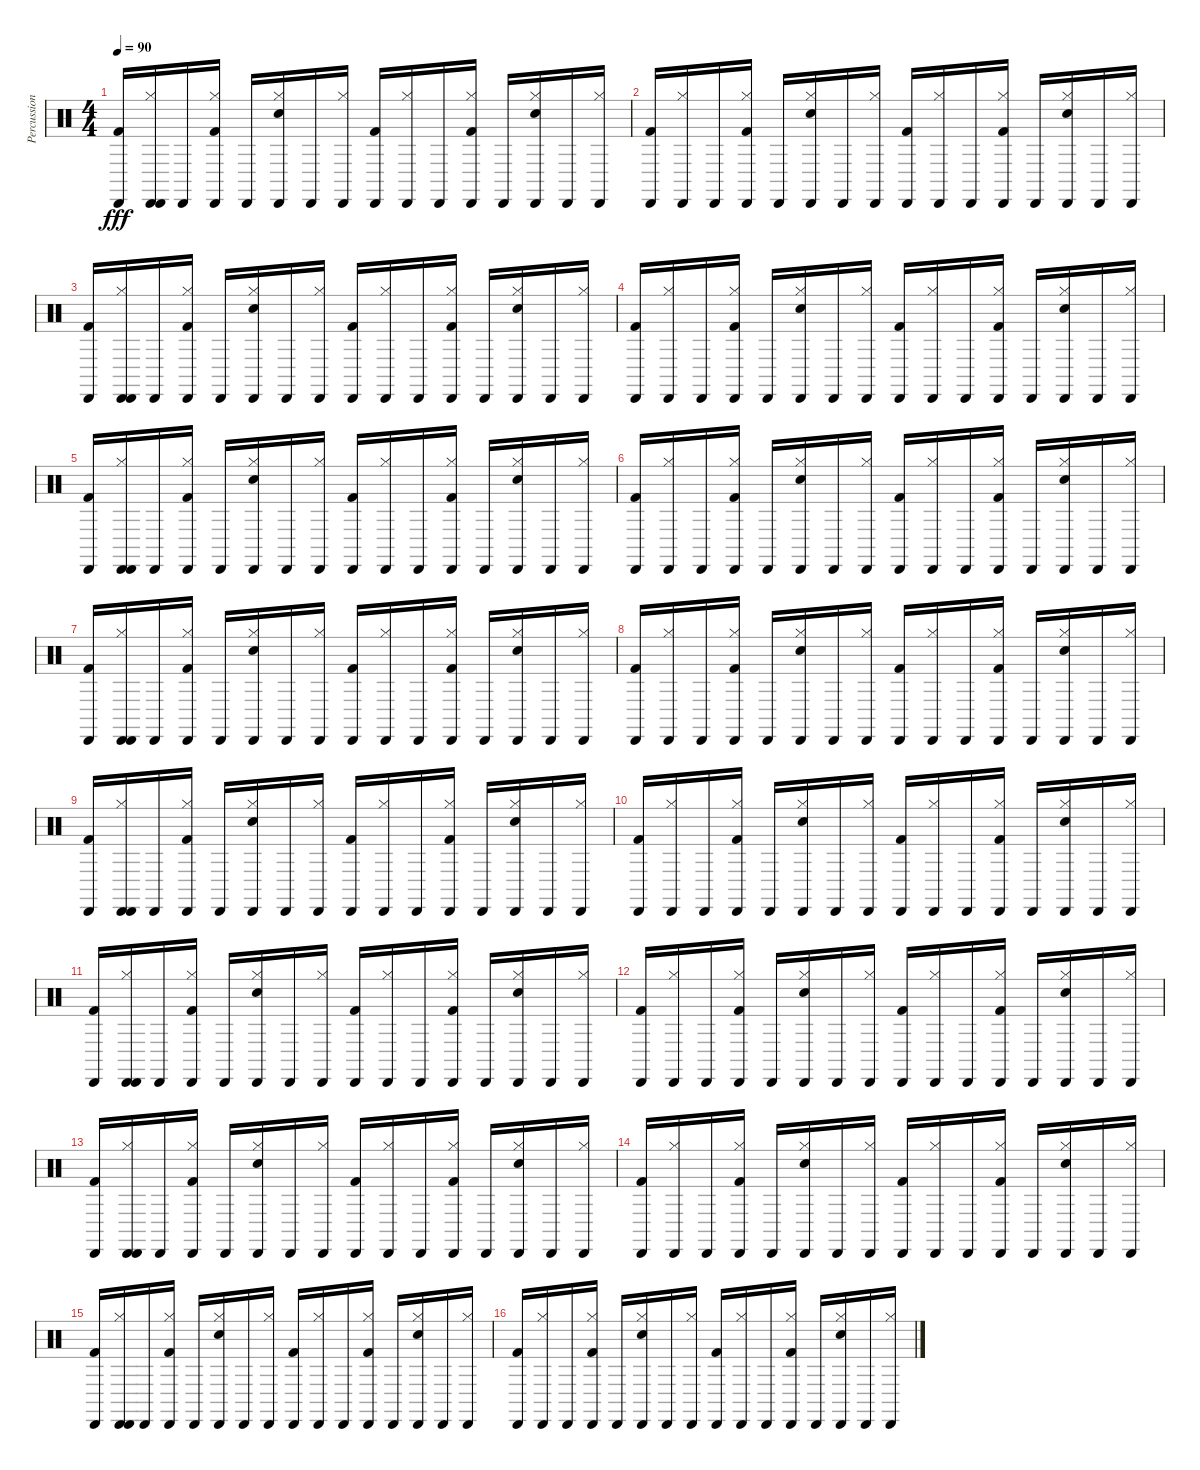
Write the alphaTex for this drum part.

\track ("Percussion" "Percussion") {instrument percussion}
\staff {score}
\articulation defaults
\ts (4 4)
\tempo 90
\clef neutral
\ks c
("Cabasa (hit)" "Kick (hit) 2").16{dy fff} ("Cabasa (hit)" "Cabasa (hit)" "Hi-Hat (closed)").16 "Cabasa (hit)".16 ("Cabasa (hit)" "Hi-Hat (closed)" "Kick (hit) 2").16 "Cabasa (hit)".16 ("Cabasa (hit)" "Hi-Hat (closed)" "Snare (hit) 2").16 "Cabasa (hit)".16 ("Cabasa (hit)" "Hi-Hat (closed)").16 ("Cabasa (hit)" "Kick (hit) 2").16 ("Cabasa (hit)" "Hi-Hat (closed)").16 "Cabasa (hit)".16 ("Cabasa (hit)" "Hi-Hat (closed)" "Kick (hit) 2").16 "Cabasa (hit)".16 ("Cabasa (hit)" "Hi-Hat (closed)" "Snare (hit) 2").16 "Cabasa (hit)".16 ("Cabasa (hit)" "Hi-Hat (closed)").16 |
("Cabasa (hit)" "Kick (hit) 2").16 ("Cabasa (hit)" "Hi-Hat (closed)").16 "Cabasa (hit)".16 ("Cabasa (hit)" "Hi-Hat (closed)" "Kick (hit) 2").16 "Cabasa (hit)".16 ("Cabasa (hit)" "Hi-Hat (closed)" "Snare (hit) 2").16 "Cabasa (hit)".16 ("Cabasa (hit)" "Hi-Hat (closed)").16 ("Cabasa (hit)" "Kick (hit) 2").16 ("Cabasa (hit)" "Hi-Hat (closed)").16 "Cabasa (hit)".16 ("Cabasa (hit)" "Hi-Hat (closed)" "Kick (hit) 2").16 "Cabasa (hit)".16 ("Cabasa (hit)" "Hi-Hat (closed)" "Snare (hit) 2").16 "Cabasa (hit)".16 ("Cabasa (hit)" "Hi-Hat (closed)").16 |
("Cabasa (hit)" "Kick (hit) 2").16 ("Cabasa (hit)" "Cabasa (hit)" "Hi-Hat (closed)").16 "Cabasa (hit)".16 ("Cabasa (hit)" "Hi-Hat (closed)" "Kick (hit) 2").16 "Cabasa (hit)".16 ("Cabasa (hit)" "Hi-Hat (closed)" "Snare (hit) 2").16 "Cabasa (hit)".16 ("Cabasa (hit)" "Hi-Hat (closed)").16 ("Cabasa (hit)" "Kick (hit) 2").16 ("Cabasa (hit)" "Hi-Hat (closed)").16 "Cabasa (hit)".16 ("Cabasa (hit)" "Hi-Hat (closed)" "Kick (hit) 2").16 "Cabasa (hit)".16 ("Cabasa (hit)" "Hi-Hat (closed)" "Snare (hit) 2").16 "Cabasa (hit)".16 ("Cabasa (hit)" "Hi-Hat (closed)").16 |
("Cabasa (hit)" "Kick (hit) 2").16 ("Cabasa (hit)" "Hi-Hat (closed)").16 "Cabasa (hit)".16 ("Cabasa (hit)" "Hi-Hat (closed)" "Kick (hit) 2").16 "Cabasa (hit)".16 ("Cabasa (hit)" "Hi-Hat (closed)" "Snare (hit) 2").16 "Cabasa (hit)".16 ("Cabasa (hit)" "Hi-Hat (closed)").16 ("Cabasa (hit)" "Kick (hit) 2").16 ("Cabasa (hit)" "Hi-Hat (closed)").16 "Cabasa (hit)".16 ("Cabasa (hit)" "Hi-Hat (closed)" "Kick (hit) 2").16 "Cabasa (hit)".16 ("Cabasa (hit)" "Hi-Hat (closed)" "Snare (hit) 2").16 "Cabasa (hit)".16 ("Cabasa (hit)" "Hi-Hat (closed)").16 |
("Cabasa (hit)" "Kick (hit) 2").16 ("Cabasa (hit)" "Cabasa (hit)" "Hi-Hat (closed)").16 "Cabasa (hit)".16 ("Cabasa (hit)" "Hi-Hat (closed)" "Kick (hit) 2").16 "Cabasa (hit)".16 ("Cabasa (hit)" "Hi-Hat (closed)" "Snare (hit) 2").16 "Cabasa (hit)".16 ("Cabasa (hit)" "Hi-Hat (closed)").16 ("Cabasa (hit)" "Kick (hit) 2").16 ("Cabasa (hit)" "Hi-Hat (closed)").16 "Cabasa (hit)".16 ("Cabasa (hit)" "Hi-Hat (closed)" "Kick (hit) 2").16 "Cabasa (hit)".16 ("Cabasa (hit)" "Hi-Hat (closed)" "Snare (hit) 2").16 "Cabasa (hit)".16 ("Cabasa (hit)" "Hi-Hat (closed)").16 |
("Cabasa (hit)" "Kick (hit) 2").16 ("Cabasa (hit)" "Hi-Hat (closed)").16 "Cabasa (hit)".16 ("Cabasa (hit)" "Hi-Hat (closed)" "Kick (hit) 2").16 "Cabasa (hit)".16 ("Cabasa (hit)" "Hi-Hat (closed)" "Snare (hit) 2").16 "Cabasa (hit)".16 ("Cabasa (hit)" "Hi-Hat (closed)").16 ("Cabasa (hit)" "Kick (hit) 2").16 ("Cabasa (hit)" "Hi-Hat (closed)").16 "Cabasa (hit)".16 ("Cabasa (hit)" "Hi-Hat (closed)" "Kick (hit) 2").16 "Cabasa (hit)".16 ("Cabasa (hit)" "Hi-Hat (closed)" "Snare (hit) 2").16 "Cabasa (hit)".16 ("Cabasa (hit)" "Hi-Hat (closed)").16 |
("Cabasa (hit)" "Kick (hit) 2").16 ("Cabasa (hit)" "Cabasa (hit)" "Hi-Hat (closed)").16 "Cabasa (hit)".16 ("Cabasa (hit)" "Hi-Hat (closed)" "Kick (hit) 2").16 "Cabasa (hit)".16 ("Cabasa (hit)" "Hi-Hat (closed)" "Snare (hit) 2").16 "Cabasa (hit)".16 ("Cabasa (hit)" "Hi-Hat (closed)").16 ("Cabasa (hit)" "Kick (hit) 2").16 ("Cabasa (hit)" "Hi-Hat (closed)").16 "Cabasa (hit)".16 ("Cabasa (hit)" "Hi-Hat (closed)" "Kick (hit) 2").16 "Cabasa (hit)".16 ("Cabasa (hit)" "Hi-Hat (closed)" "Snare (hit) 2").16 "Cabasa (hit)".16 ("Cabasa (hit)" "Hi-Hat (closed)").16 |
("Cabasa (hit)" "Kick (hit) 2").16 ("Cabasa (hit)" "Hi-Hat (closed)").16 "Cabasa (hit)".16 ("Cabasa (hit)" "Hi-Hat (closed)" "Kick (hit) 2").16 "Cabasa (hit)".16 ("Cabasa (hit)" "Hi-Hat (closed)" "Snare (hit) 2").16 "Cabasa (hit)".16 ("Cabasa (hit)" "Hi-Hat (closed)").16 ("Cabasa (hit)" "Kick (hit) 2").16 ("Cabasa (hit)" "Hi-Hat (closed)").16 "Cabasa (hit)".16 ("Cabasa (hit)" "Hi-Hat (closed)" "Kick (hit) 2").16 "Cabasa (hit)".16 ("Cabasa (hit)" "Hi-Hat (closed)" "Snare (hit) 2").16 "Cabasa (hit)".16 ("Cabasa (hit)" "Hi-Hat (closed)").16 |
("Cabasa (hit)" "Kick (hit) 2").16 ("Cabasa (hit)" "Cabasa (hit)" "Hi-Hat (closed)").16 "Cabasa (hit)".16 ("Cabasa (hit)" "Hi-Hat (closed)" "Kick (hit) 2").16 "Cabasa (hit)".16 ("Cabasa (hit)" "Hi-Hat (closed)" "Snare (hit) 2").16 "Cabasa (hit)".16 ("Cabasa (hit)" "Hi-Hat (closed)").16 ("Cabasa (hit)" "Kick (hit) 2").16 ("Cabasa (hit)" "Hi-Hat (closed)").16 "Cabasa (hit)".16 ("Cabasa (hit)" "Hi-Hat (closed)" "Kick (hit) 2").16 "Cabasa (hit)".16 ("Cabasa (hit)" "Hi-Hat (closed)" "Snare (hit) 2").16 "Cabasa (hit)".16 ("Cabasa (hit)" "Hi-Hat (closed)").16 |
("Cabasa (hit)" "Kick (hit) 2").16 ("Cabasa (hit)" "Hi-Hat (closed)").16 "Cabasa (hit)".16 ("Cabasa (hit)" "Hi-Hat (closed)" "Kick (hit) 2").16 "Cabasa (hit)".16 ("Cabasa (hit)" "Hi-Hat (closed)" "Snare (hit) 2").16 "Cabasa (hit)".16 ("Cabasa (hit)" "Hi-Hat (closed)").16 ("Cabasa (hit)" "Kick (hit) 2").16 ("Cabasa (hit)" "Hi-Hat (closed)").16 "Cabasa (hit)".16 ("Cabasa (hit)" "Hi-Hat (closed)" "Kick (hit) 2").16 "Cabasa (hit)".16 ("Cabasa (hit)" "Hi-Hat (closed)" "Snare (hit) 2").16 "Cabasa (hit)".16 ("Cabasa (hit)" "Hi-Hat (closed)").16 |
("Cabasa (hit)" "Kick (hit) 2").16 ("Cabasa (hit)" "Cabasa (hit)" "Hi-Hat (closed)").16 "Cabasa (hit)".16 ("Cabasa (hit)" "Hi-Hat (closed)" "Kick (hit) 2").16 "Cabasa (hit)".16 ("Cabasa (hit)" "Hi-Hat (closed)" "Snare (hit) 2").16 "Cabasa (hit)".16 ("Cabasa (hit)" "Hi-Hat (closed)").16 ("Cabasa (hit)" "Kick (hit) 2").16 ("Cabasa (hit)" "Hi-Hat (closed)").16 "Cabasa (hit)".16 ("Cabasa (hit)" "Hi-Hat (closed)" "Kick (hit) 2").16 "Cabasa (hit)".16 ("Cabasa (hit)" "Hi-Hat (closed)" "Snare (hit) 2").16 "Cabasa (hit)".16 ("Cabasa (hit)" "Hi-Hat (closed)").16 |
("Cabasa (hit)" "Kick (hit) 2").16 ("Cabasa (hit)" "Hi-Hat (closed)").16 "Cabasa (hit)".16 ("Cabasa (hit)" "Hi-Hat (closed)" "Kick (hit) 2").16 "Cabasa (hit)".16 ("Cabasa (hit)" "Hi-Hat (closed)" "Snare (hit) 2").16 "Cabasa (hit)".16 ("Cabasa (hit)" "Hi-Hat (closed)").16 ("Cabasa (hit)" "Kick (hit) 2").16 ("Cabasa (hit)" "Hi-Hat (closed)").16 "Cabasa (hit)".16 ("Cabasa (hit)" "Hi-Hat (closed)" "Kick (hit) 2").16 "Cabasa (hit)".16 ("Cabasa (hit)" "Hi-Hat (closed)" "Snare (hit) 2").16 "Cabasa (hit)".16 ("Cabasa (hit)" "Hi-Hat (closed)").16 |
("Cabasa (hit)" "Kick (hit) 2").16 ("Cabasa (hit)" "Cabasa (hit)" "Hi-Hat (closed)").16 "Cabasa (hit)".16 ("Cabasa (hit)" "Hi-Hat (closed)" "Kick (hit) 2").16 "Cabasa (hit)".16 ("Cabasa (hit)" "Hi-Hat (closed)" "Snare (hit) 2").16 "Cabasa (hit)".16 ("Cabasa (hit)" "Hi-Hat (closed)").16 ("Cabasa (hit)" "Kick (hit) 2").16 ("Cabasa (hit)" "Hi-Hat (closed)").16 "Cabasa (hit)".16 ("Cabasa (hit)" "Hi-Hat (closed)" "Kick (hit) 2").16 "Cabasa (hit)".16 ("Cabasa (hit)" "Hi-Hat (closed)" "Snare (hit) 2").16 "Cabasa (hit)".16 ("Cabasa (hit)" "Hi-Hat (closed)").16 |
("Cabasa (hit)" "Kick (hit) 2").16 ("Cabasa (hit)" "Hi-Hat (closed)").16 "Cabasa (hit)".16 ("Cabasa (hit)" "Hi-Hat (closed)" "Kick (hit) 2").16 "Cabasa (hit)".16 ("Cabasa (hit)" "Hi-Hat (closed)" "Snare (hit) 2").16 "Cabasa (hit)".16 ("Cabasa (hit)" "Hi-Hat (closed)").16 ("Cabasa (hit)" "Kick (hit) 2").16 ("Cabasa (hit)" "Hi-Hat (closed)").16 "Cabasa (hit)".16 ("Cabasa (hit)" "Hi-Hat (closed)" "Kick (hit) 2").16 "Cabasa (hit)".16 ("Cabasa (hit)" "Hi-Hat (closed)" "Snare (hit) 2").16 "Cabasa (hit)".16 ("Cabasa (hit)" "Hi-Hat (closed)").16 |
("Cabasa (hit)" "Kick (hit) 2").16 ("Cabasa (hit)" "Cabasa (hit)" "Hi-Hat (closed)").16 "Cabasa (hit)".16 ("Cabasa (hit)" "Hi-Hat (closed)" "Kick (hit) 2").16 "Cabasa (hit)".16 ("Cabasa (hit)" "Hi-Hat (closed)" "Snare (hit) 2").16 "Cabasa (hit)".16 ("Cabasa (hit)" "Hi-Hat (closed)").16 ("Cabasa (hit)" "Kick (hit) 2").16 ("Cabasa (hit)" "Hi-Hat (closed)").16 "Cabasa (hit)".16 ("Cabasa (hit)" "Hi-Hat (closed)" "Kick (hit) 2").16 "Cabasa (hit)".16 ("Cabasa (hit)" "Hi-Hat (closed)" "Snare (hit) 2").16 "Cabasa (hit)".16 ("Cabasa (hit)" "Hi-Hat (closed)").16 |
("Cabasa (hit)" "Kick (hit) 2").16 ("Cabasa (hit)" "Hi-Hat (closed)").16 "Cabasa (hit)".16 ("Cabasa (hit)" "Hi-Hat (closed)" "Kick (hit) 2").16 "Cabasa (hit)".16 ("Cabasa (hit)" "Hi-Hat (closed)" "Snare (hit) 2").16 "Cabasa (hit)".16 ("Cabasa (hit)" "Hi-Hat (closed)").16 ("Cabasa (hit)" "Kick (hit) 2").16 ("Cabasa (hit)" "Hi-Hat (closed)").16 "Cabasa (hit)".16 ("Cabasa (hit)" "Hi-Hat (closed)" "Kick (hit) 2").16 "Cabasa (hit)".16 ("Cabasa (hit)" "Hi-Hat (closed)" "Snare (hit) 2").16 "Cabasa (hit)".16 ("Cabasa (hit)" "Hi-Hat (closed)").16
